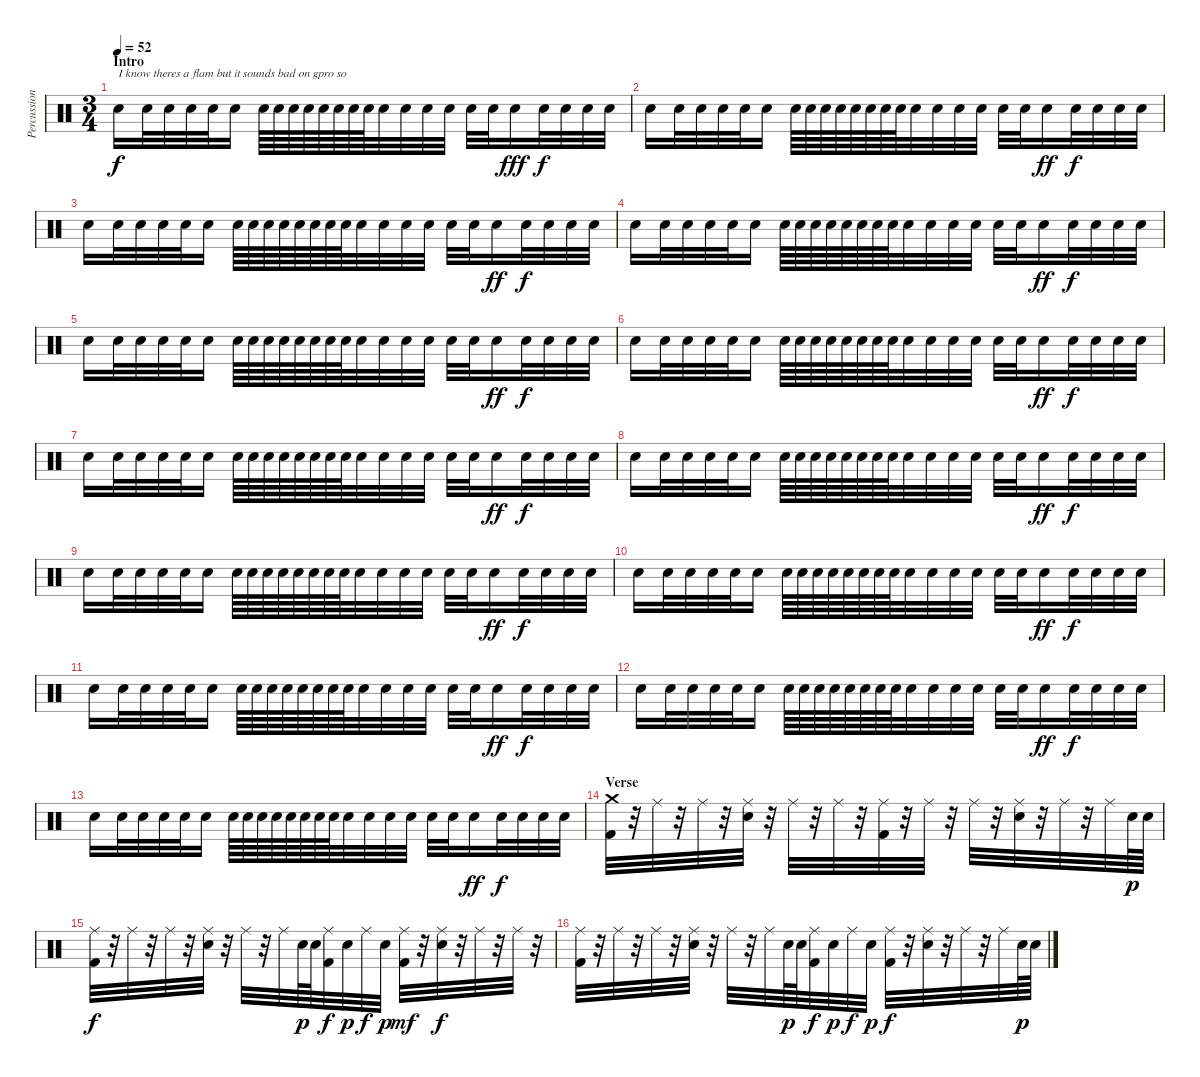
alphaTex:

\track ("Percussion" "Percussion") {instrument percussion}
\staff {score}
\articulation defaults
\ts (3 4)
\section ("" "Intro")
\tempo 52
\clef neutral
\ks c "Snare (hit) 2".16{txt "I know theres a flam but it sounds bad on gpro so" dy f volume 6} "Snare (hit) 2".32{volume 13} "Snare (hit) 2".32 "Snare (hit) 2".32 "Snare (hit) 2".32 "Snare (hit) 2".16 "Snare (hit) 2".64 "Snare (hit) 2".64 "Snare (hit) 2".64 "Snare (hit) 2".64 "Snare (hit) 2".64 "Snare (hit) 2".64 "Snare (hit) 2".64 "Snare (hit) 2".64 "Snare (hit) 2".32 "Snare (hit) 2".32 "Snare (hit) 2".32 "Snare (hit) 2".32 "Snare (hit) 2".32 "Snare (hit) 2".32 "Snare (hit) 2".16{dy fff} "Snare (hit) 2".32{dy f} "Snare (hit) 2".32 "Snare (hit) 2".32 "Snare (hit) 2".32
|
"Snare (hit) 2".16 "Snare (hit) 2".32 "Snare (hit) 2".32 "Snare (hit) 2".32 "Snare (hit) 2".32 "Snare (hit) 2".16 "Snare (hit) 2".64 "Snare (hit) 2".64 "Snare (hit) 2".64 "Snare (hit) 2".64 "Snare (hit) 2".64 "Snare (hit) 2".64 "Snare (hit) 2".64 "Snare (hit) 2".64 "Snare (hit) 2".32 "Snare (hit) 2".32 "Snare (hit) 2".32 "Snare (hit) 2".32 "Snare (hit) 2".32 "Snare (hit) 2".32 "Snare (hit) 2".16{dy ff} "Snare (hit) 2".32{dy f} "Snare (hit) 2".32 "Snare (hit) 2".32 "Snare (hit) 2".32 |
"Snare (hit) 2".16 "Snare (hit) 2".32 "Snare (hit) 2".32 "Snare (hit) 2".32 "Snare (hit) 2".32 "Snare (hit) 2".16 "Snare (hit) 2".64 "Snare (hit) 2".64 "Snare (hit) 2".64 "Snare (hit) 2".64 "Snare (hit) 2".64 "Snare (hit) 2".64 "Snare (hit) 2".64 "Snare (hit) 2".64 "Snare (hit) 2".32 "Snare (hit) 2".32 "Snare (hit) 2".32 "Snare (hit) 2".32 "Snare (hit) 2".32 "Snare (hit) 2".32 "Snare (hit) 2".16{dy ff} "Snare (hit) 2".32{dy f} "Snare (hit) 2".32 "Snare (hit) 2".32 "Snare (hit) 2".32 |
"Snare (hit) 2".16 "Snare (hit) 2".32 "Snare (hit) 2".32 "Snare (hit) 2".32 "Snare (hit) 2".32 "Snare (hit) 2".16 "Snare (hit) 2".64 "Snare (hit) 2".64 "Snare (hit) 2".64 "Snare (hit) 2".64 "Snare (hit) 2".64 "Snare (hit) 2".64 "Snare (hit) 2".64 "Snare (hit) 2".64 "Snare (hit) 2".32 "Snare (hit) 2".32 "Snare (hit) 2".32 "Snare (hit) 2".32 "Snare (hit) 2".32 "Snare (hit) 2".32 "Snare (hit) 2".16{dy ff} "Snare (hit) 2".32{dy f} "Snare (hit) 2".32 "Snare (hit) 2".32 "Snare (hit) 2".32 |
"Snare (hit) 2".16 "Snare (hit) 2".32 "Snare (hit) 2".32 "Snare (hit) 2".32 "Snare (hit) 2".32 "Snare (hit) 2".16 "Snare (hit) 2".64 "Snare (hit) 2".64 "Snare (hit) 2".64 "Snare (hit) 2".64 "Snare (hit) 2".64 "Snare (hit) 2".64 "Snare (hit) 2".64 "Snare (hit) 2".64 "Snare (hit) 2".32 "Snare (hit) 2".32 "Snare (hit) 2".32 "Snare (hit) 2".32 "Snare (hit) 2".32 "Snare (hit) 2".32 "Snare (hit) 2".16{dy ff} "Snare (hit) 2".32{dy f} "Snare (hit) 2".32 "Snare (hit) 2".32 "Snare (hit) 2".32 |
"Snare (hit) 2".16 "Snare (hit) 2".32 "Snare (hit) 2".32 "Snare (hit) 2".32 "Snare (hit) 2".32 "Snare (hit) 2".16 "Snare (hit) 2".64 "Snare (hit) 2".64 "Snare (hit) 2".64 "Snare (hit) 2".64 "Snare (hit) 2".64 "Snare (hit) 2".64 "Snare (hit) 2".64 "Snare (hit) 2".64 "Snare (hit) 2".32 "Snare (hit) 2".32 "Snare (hit) 2".32 "Snare (hit) 2".32 "Snare (hit) 2".32 "Snare (hit) 2".32 "Snare (hit) 2".16{dy ff} "Snare (hit) 2".32{dy f} "Snare (hit) 2".32 "Snare (hit) 2".32 "Snare (hit) 2".32 |
"Snare (hit) 2".16 "Snare (hit) 2".32 "Snare (hit) 2".32 "Snare (hit) 2".32 "Snare (hit) 2".32 "Snare (hit) 2".16 "Snare (hit) 2".64 "Snare (hit) 2".64 "Snare (hit) 2".64 "Snare (hit) 2".64 "Snare (hit) 2".64 "Snare (hit) 2".64 "Snare (hit) 2".64 "Snare (hit) 2".64 "Snare (hit) 2".32 "Snare (hit) 2".32 "Snare (hit) 2".32 "Snare (hit) 2".32 "Snare (hit) 2".32 "Snare (hit) 2".32 "Snare (hit) 2".16{dy ff} "Snare (hit) 2".32{dy f} "Snare (hit) 2".32 "Snare (hit) 2".32 "Snare (hit) 2".32 |
"Snare (hit) 2".16 "Snare (hit) 2".32 "Snare (hit) 2".32 "Snare (hit) 2".32 "Snare (hit) 2".32 "Snare (hit) 2".16 "Snare (hit) 2".64 "Snare (hit) 2".64 "Snare (hit) 2".64 "Snare (hit) 2".64 "Snare (hit) 2".64 "Snare (hit) 2".64 "Snare (hit) 2".64 "Snare (hit) 2".64 "Snare (hit) 2".32 "Snare (hit) 2".32 "Snare (hit) 2".32 "Snare (hit) 2".32 "Snare (hit) 2".32 "Snare (hit) 2".32 "Snare (hit) 2".16{dy ff} "Snare (hit) 2".32{dy f} "Snare (hit) 2".32 "Snare (hit) 2".32 "Snare (hit) 2".32 |
"Snare (hit) 2".16 "Snare (hit) 2".32 "Snare (hit) 2".32 "Snare (hit) 2".32 "Snare (hit) 2".32 "Snare (hit) 2".16 "Snare (hit) 2".64 "Snare (hit) 2".64 "Snare (hit) 2".64 "Snare (hit) 2".64 "Snare (hit) 2".64 "Snare (hit) 2".64 "Snare (hit) 2".64 "Snare (hit) 2".64 "Snare (hit) 2".32 "Snare (hit) 2".32 "Snare (hit) 2".32 "Snare (hit) 2".32 "Snare (hit) 2".32 "Snare (hit) 2".32 "Snare (hit) 2".16{dy ff} "Snare (hit) 2".32{dy f} "Snare (hit) 2".32 "Snare (hit) 2".32 "Snare (hit) 2".32 |
"Snare (hit) 2".16 "Snare (hit) 2".32 "Snare (hit) 2".32 "Snare (hit) 2".32 "Snare (hit) 2".32 "Snare (hit) 2".16 "Snare (hit) 2".64 "Snare (hit) 2".64 "Snare (hit) 2".64 "Snare (hit) 2".64 "Snare (hit) 2".64 "Snare (hit) 2".64 "Snare (hit) 2".64 "Snare (hit) 2".64 "Snare (hit) 2".32 "Snare (hit) 2".32 "Snare (hit) 2".32 "Snare (hit) 2".32 "Snare (hit) 2".32 "Snare (hit) 2".32 "Snare (hit) 2".16{dy ff} "Snare (hit) 2".32{dy f} "Snare (hit) 2".32 "Snare (hit) 2".32 "Snare (hit) 2".32 |
"Snare (hit) 2".16 "Snare (hit) 2".32 "Snare (hit) 2".32 "Snare (hit) 2".32 "Snare (hit) 2".32 "Snare (hit) 2".16 "Snare (hit) 2".64 "Snare (hit) 2".64 "Snare (hit) 2".64 "Snare (hit) 2".64 "Snare (hit) 2".64 "Snare (hit) 2".64 "Snare (hit) 2".64 "Snare (hit) 2".64 "Snare (hit) 2".32 "Snare (hit) 2".32 "Snare (hit) 2".32 "Snare (hit) 2".32 "Snare (hit) 2".32 "Snare (hit) 2".32 "Snare (hit) 2".16{dy ff} "Snare (hit) 2".32{dy f} "Snare (hit) 2".32 "Snare (hit) 2".32 "Snare (hit) 2".32 |
"Snare (hit) 2".16 "Snare (hit) 2".32 "Snare (hit) 2".32 "Snare (hit) 2".32 "Snare (hit) 2".32 "Snare (hit) 2".16 "Snare (hit) 2".64 "Snare (hit) 2".64 "Snare (hit) 2".64 "Snare (hit) 2".64 "Snare (hit) 2".64 "Snare (hit) 2".64 "Snare (hit) 2".64 "Snare (hit) 2".64 "Snare (hit) 2".32 "Snare (hit) 2".32 "Snare (hit) 2".32 "Snare (hit) 2".32 "Snare (hit) 2".32 "Snare (hit) 2".32 "Snare (hit) 2".16{dy ff} "Snare (hit) 2".32{dy f} "Snare (hit) 2".32 "Snare (hit) 2".32 "Snare (hit) 2".32 |
"Snare (hit) 2".16 "Snare (hit) 2".32 "Snare (hit) 2".32 "Snare (hit) 2".32 "Snare (hit) 2".32 "Snare (hit) 2".16 "Snare (hit) 2".64 "Snare (hit) 2".64 "Snare (hit) 2".64 "Snare (hit) 2".64 "Snare (hit) 2".64 "Snare (hit) 2".64 "Snare (hit) 2".64 "Snare (hit) 2".64 "Snare (hit) 2".32 "Snare (hit) 2".32 "Snare (hit) 2".32 "Snare (hit) 2".32 "Snare (hit) 2".32 "Snare (hit) 2".32 "Snare (hit) 2".16{dy ff} "Snare (hit) 2".32{dy f} "Snare (hit) 2".32 "Snare (hit) 2".32 "Snare (hit) 2".32 |
\section ("" "Verse")
("Crash medium (hit)" "Kick (hit) 2").32 r.32 "Ride (middle)".32 r.32 "Ride (middle)".32 r.32 ("Ride (middle)" "Snare (hit) 2").32 r.32 "Ride (middle)".32 r.32 "Ride (middle)".32 r.32 ("Ride (middle)" "Kick (hit) 2").32 r.32 "Ride (middle)".32 r.32 "Ride (middle)".32 r.32 ("Ride (middle)" "Snare (hit) 2").32 r.32 "Ride (middle)".32 r.32 "Ride (middle)".32 "Snare (hit) 2".64{dy p} "Snare (hit) 2".64 |
("Ride (middle)" "Kick (hit) 2").32{dy f} r.32 "Ride (middle)".32 r.32 "Ride (middle)".32 r.32 ("Ride (middle)" "Snare (hit) 2").32 r.32 "Ride (middle)".32 r.32 "Ride (middle)".32 "Snare (hit) 2".64{dy p} "Snare (hit) 2".64 ("Ride (middle)" "Kick (hit) 2").32{dy f} "Snare (hit) 2".32{dy p} "Ride (middle)".32{dy f} "Snare (hit) 2".32{dy p} ("Ride (middle)" "Kick (hit) 2").32{dy mf} r.32 ("Ride (middle)" "Snare (hit) 2").32{dy f} r.32 "Ride (middle)".32 r.32 "Ride (middle)".32 r.32 |
("Ride (middle)" "Kick (hit) 2").32 r.32 "Ride (middle)".32 r.32 "Ride (middle)".32 r.32 ("Ride (middle)" "Snare (hit) 2").32 r.32 "Ride (middle)".32 r.32 "Ride (middle)".32 "Snare (hit) 2".64{dy p} "Snare (hit) 2".64 ("Ride (middle)" "Kick (hit) 2").32{dy f} "Snare (hit) 2".32{dy p} "Ride (middle)".32{dy f} "Snare (hit) 2".32{dy p} ("Ride (middle)" "Kick (hit) 2").32{dy f} r.32 ("Ride (middle)" "Snare (hit) 2").32 r.32 "Ride (middle)".32 r.32 "Ride (middle)".32 "Snare (hit) 2".64{dy p} "Snare (hit) 2".64
